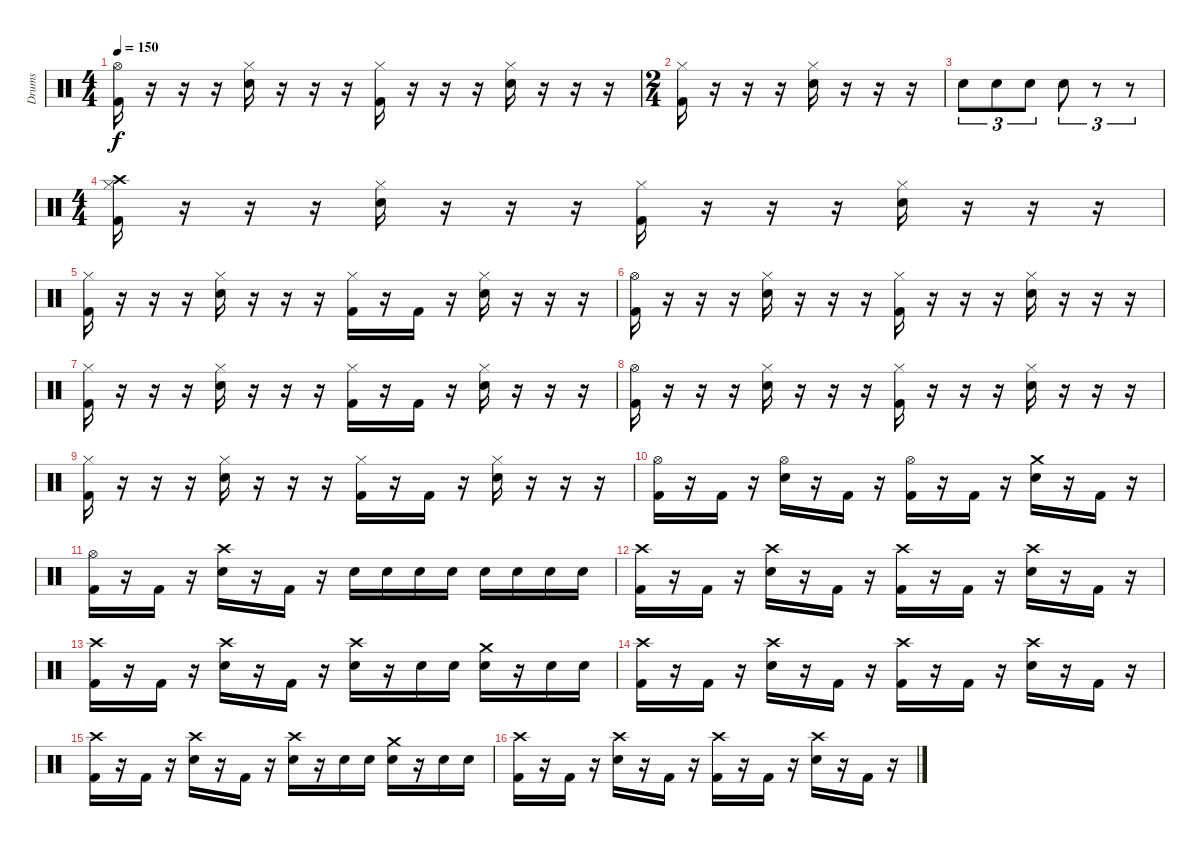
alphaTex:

\track ("Drums" "Drums") {instrument percussion}
\staff {score}
\articulation defaults
\ts (4 4)
\tempo 150
\clef neutral
\ks c
("Hi-Hat (open)" "Kick (hit) 2").16{dy f} r.16 r.16 r.16 ("Hi-Hat (closed)" "Snare (hit) 2").16 r.16 r.16 r.16 ("Hi-Hat (closed)" "Kick (hit) 2").16 r.16 r.16 r.16 ("Hi-Hat (closed)" "Snare (hit) 2").16 r.16 r.16 r.16 |
\ts (2 4)
("Hi-Hat (closed)" "Kick (hit) 2").16 r.16 r.16 r.16 ("Hi-Hat (closed)" "Snare (hit) 2").16 r.16 r.16 r.16 |
"Snare (hit) 2".8{tu (3 2)} "Snare (hit) 2".8{tu (3 2)} "Snare (hit) 2".8{tu (3 2)} "Snare (hit) 2".8{tu (3 2)} r.8{tu (3 2)} r.8{tu (3 2)} |
\ts (4 4)
("Crash high (hit)" "Hi-Hat (closed)" "Kick (hit) 2").16 r.16 r.16 r.16 ("Hi-Hat (closed)" "Snare (hit) 2").16 r.16 r.16 r.16 ("Hi-Hat (closed)" "Kick (hit) 2").16 r.16 r.16 r.16 ("Hi-Hat (closed)" "Snare (hit) 2").16 r.16 r.16 r.16 |
("Hi-Hat (closed)" "Kick (hit) 2").16 r.16 r.16 r.16 ("Hi-Hat (closed)" "Snare (hit) 2").16 r.16 r.16 r.16 ("Hi-Hat (closed)" "Kick (hit) 2").16 r.16 "Kick (hit) 2".16 r.16 ("Hi-Hat (closed)" "Snare (hit) 2").16 r.16 r.16 r.16 |
("Hi-Hat (open)" "Kick (hit) 2").16 r.16 r.16 r.16 ("Hi-Hat (closed)" "Snare (hit) 2").16 r.16 r.16 r.16 ("Hi-Hat (closed)" "Kick (hit) 2").16 r.16 r.16 r.16 ("Hi-Hat (closed)" "Snare (hit) 2").16 r.16 r.16 r.16 |
("Hi-Hat (closed)" "Kick (hit) 2").16 r.16 r.16 r.16 ("Hi-Hat (closed)" "Snare (hit) 2").16 r.16 r.16 r.16 ("Hi-Hat (closed)" "Kick (hit) 2").16 r.16 "Kick (hit) 2".16 r.16 ("Hi-Hat (closed)" "Snare (hit) 2").16 r.16 r.16 r.16 |
("Hi-Hat (open)" "Kick (hit) 2").16 r.16 r.16 r.16 ("Hi-Hat (closed)" "Snare (hit) 2").16 r.16 r.16 r.16 ("Hi-Hat (closed)" "Kick (hit) 2").16 r.16 r.16 r.16 ("Hi-Hat (closed)" "Snare (hit) 2").16 r.16 r.16 r.16 |
("Hi-Hat (closed)" "Kick (hit) 2").16 r.16 r.16 r.16 ("Hi-Hat (closed)" "Snare (hit) 2").16 r.16 r.16 r.16 ("Hi-Hat (closed)" "Kick (hit) 2").16 r.16 "Kick (hit) 2".16 r.16 ("Hi-Hat (closed)" "Snare (hit) 2").16 r.16 r.16 r.16 |
("Hi-Hat (open)" "Kick (hit) 2").16 r.16 "Kick (hit) 2".16 r.16 ("Hi-Hat (open)" "Snare (hit) 2").16 r.16 "Kick (hit) 2".16 r.16 ("Hi-Hat (open)" "Kick (hit) 2").16 r.16 "Kick (hit) 2".16 r.16 ("Crash medium (hit)" "Snare (hit) 2").16 r.16 "Kick (hit) 2".16 r.16 |
("Hi-Hat (open)" "Kick (hit) 2").16 r.16 "Kick (hit) 2".16 r.16 ("Crash high (hit)" "Snare (hit) 2").16 r.16 "Kick (hit) 2".16 r.16 "Snare (hit) 2".16 "Snare (hit) 2".16 "Snare (hit) 2".16 "Snare (hit) 2".16 "Snare (hit) 2".16 "Snare (hit) 2".16 "Snare (hit) 2".16 "Snare (hit) 2".16 |
("Crash high (hit)" "Kick (hit) 2").16 r.16 "Kick (hit) 2".16 r.16 ("Crash high (hit)" "Snare (hit) 2").16 r.16 "Kick (hit) 2".16 r.16 ("Crash high (hit)" "Kick (hit) 2").16 r.16 "Kick (hit) 2".16 r.16 ("Crash high (hit)" "Snare (hit) 2").16 r.16 "Kick (hit) 2".16 r.16 |
("Crash high (hit)" "Kick (hit) 2").16 r.16 "Kick (hit) 2".16 r.16 ("Crash high (hit)" "Snare (hit) 2").16 r.16 "Kick (hit) 2".16 r.16 ("Crash high (hit)" "Snare (hit) 2").16 r.16 "Snare (hit) 2".16 "Snare (hit) 2".16 ("Crash medium (hit)" "Snare (hit) 2").16 r.16 "Snare (hit) 2".16 "Snare (hit) 2".16 |
("Crash high (hit)" "Kick (hit) 2").16 r.16 "Kick (hit) 2".16 r.16 ("Crash high (hit)" "Snare (hit) 2").16 r.16 "Kick (hit) 2".16 r.16 ("Crash high (hit)" "Kick (hit) 2").16 r.16 "Kick (hit) 2".16 r.16 ("Crash high (hit)" "Snare (hit) 2").16 r.16 "Kick (hit) 2".16 r.16 |
("Crash high (hit)" "Kick (hit) 2").16 r.16 "Kick (hit) 2".16 r.16 ("Crash high (hit)" "Snare (hit) 2").16 r.16 "Kick (hit) 2".16 r.16 ("Crash high (hit)" "Snare (hit) 2").16 r.16 "Snare (hit) 2".16 "Snare (hit) 2".16 ("Crash medium (hit)" "Snare (hit) 2").16 r.16 "Snare (hit) 2".16 "Snare (hit) 2".16 |
("Crash high (hit)" "Kick (hit) 2").16 r.16 "Kick (hit) 2".16 r.16 ("Crash high (hit)" "Snare (hit) 2").16 r.16 "Kick (hit) 2".16 r.16 ("Crash high (hit)" "Kick (hit) 2").16 r.16 "Kick (hit) 2".16 r.16 ("Crash high (hit)" "Snare (hit) 2").16 r.16 "Kick (hit) 2".16 r.16
